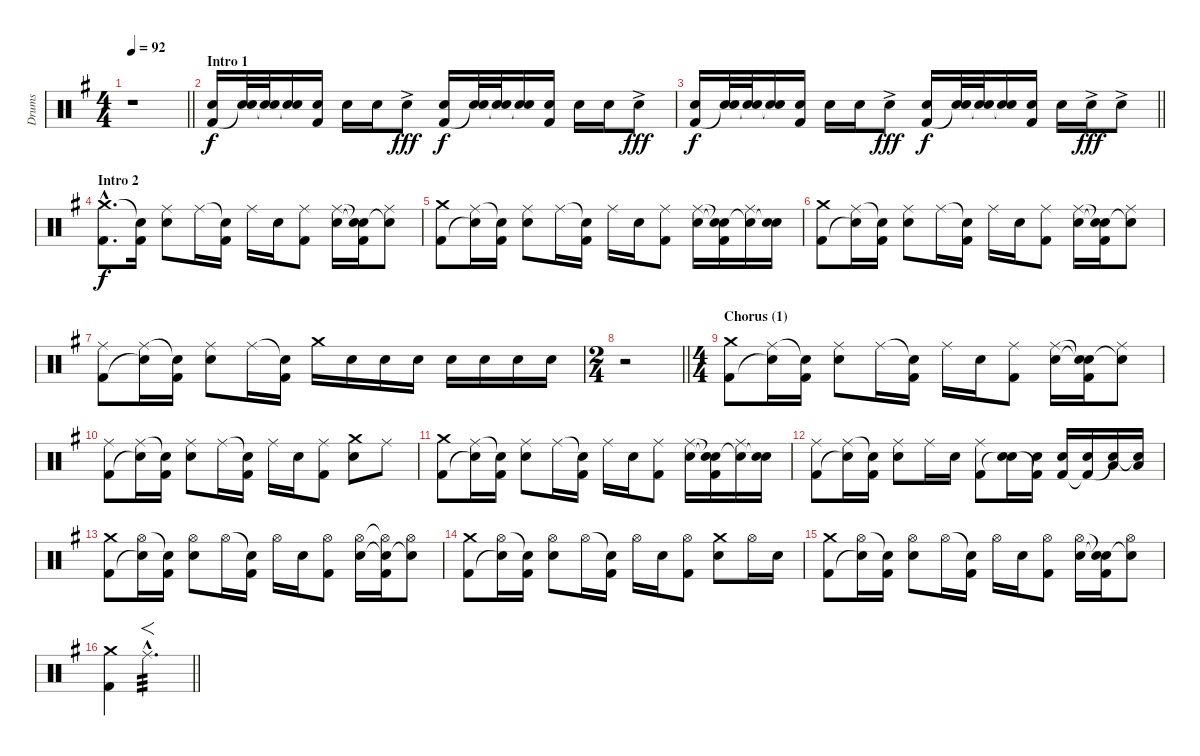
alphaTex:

\track ("Drums" "Drums") {instrument percussion}
\staff {score}
\articulation defaults
\ts (4 4)
\tempo 92
\clef neutral
\barLineRight lightlight
\ks g
r.1{dy f} |
\section ("" "Intro 1")
("Electric Snare (hit)" "Kick (hit) 2").16 ("Electric Snare (hit)" "Snare (hit)"{t}).32 ("Electric Snare (hit)" "Snare (hit)"{t}).32 ("Electric Snare (hit)" "Snare (hit)"{t}).16 ("Electric Snare (hit)" "Kick (hit) 2").16 "Electric Snare (hit)".16 "Electric Snare (hit)".16 "Electric Snare (hit)"{ac}.8{dy fff} ("Electric Snare (hit)" "Kick (hit) 2").16{dy f} ("Electric Snare (hit)" "Snare (hit)"{t}).32 ("Electric Snare (hit)" "Snare (hit)"{t}).32 ("Electric Snare (hit)" "Snare (hit)"{t}).16 ("Electric Snare (hit)" "Kick (hit) 2").16 "Electric Snare (hit)".16 "Electric Snare (hit)".16 "Electric Snare (hit)"{ac}.8{dy fff} |
\barLineRight lightlight
("Electric Snare (hit)" "Kick (hit) 2").16{dy f} ("Electric Snare (hit)" "Snare (hit)"{t}).32 ("Electric Snare (hit)" "Snare (hit)"{t}).32 ("Electric Snare (hit)" "Snare (hit)"{t}).16 ("Electric Snare (hit)" "Kick (hit) 2").16 "Electric Snare (hit)".16 "Electric Snare (hit)".16 "Electric Snare (hit)"{ac}.8{dy fff} ("Electric Snare (hit)" "Kick (hit) 2").16{dy f} ("Electric Snare (hit)" "Snare (hit)"{t}).32 ("Electric Snare (hit)" "Snare (hit)"{t}).32 ("Electric Snare (hit)" "Snare (hit)"{t}).16 ("Electric Snare (hit)" "Kick (hit) 2").16 "Electric Snare (hit)".16 "Electric Snare (hit)"{ac}.16{dy fff} "Electric Snare (hit)"{ac}.8 |
\section ("" "Intro 2")
("Crash medium (hit)"{hac} "Kick (hit) 2"{hac}).8{d dy f} ("Snare (hit)"{t} "Kick (hit) 2").16 ("Ride (middle)" "Electric Snare (hit)").8 "Ride (middle)".16 ("Snare (hit)"{t} "Kick (hit) 2").16 "Ride (middle)".16 "Electric Snare (hit)".16 ("Ride (middle)" "Kick (hit) 2").8 ("Ride (middle)" "Electric Snare (hit)").16 ("Snare (hit)"{t} "Snare (hit)"{t} "Kick (hit) 2").16 ("Ride (middle)" "Snare (hit)"{t}).8 |
("Crash medium (hit)" "Kick (hit) 2").8 ("Ride (middle)" "Snare (hit)"{t}).16 ("Snare (hit)"{t} "Kick (hit) 2").16 ("Ride (middle)" "Electric Snare (hit)").8 "Ride (middle)".16 ("Snare (hit)"{t} "Kick (hit) 2").16 "Ride (middle)".16 "Electric Snare (hit)".16 ("Ride (middle)" "Kick (hit) 2").8 ("Ride (middle)" "Electric Snare (hit)").16 ("Snare (hit)"{t} "Snare (hit)"{t} "Kick (hit) 2").16 ("Ride (middle)" "Snare (hit)"{t}).16 ("Electric Snare (hit)" "Snare (hit)"{t}).16 |
("Crash medium (hit)" "Kick (hit) 2").8 ("Ride (middle)" "Snare (hit)"{t}).16 ("Snare (hit)"{t} "Kick (hit) 2").16 ("Ride (middle)" "Electric Snare (hit)").8 "Ride (middle)".16 ("Snare (hit)"{t} "Kick (hit) 2").16 "Ride (middle)".16 "Electric Snare (hit)".16 ("Ride (middle)" "Kick (hit) 2").8 ("Ride (middle)" "Electric Snare (hit)").16 ("Snare (hit)"{t} "Snare (hit)"{t} "Kick (hit) 2").16 ("Ride (middle)" "Snare (hit)"{t}).8 |
("Ride (middle)" "Kick (hit) 2").8 ("Ride (middle)" "Snare (hit)"{t}).16 ("Snare (hit)"{t} "Kick (hit) 2").16 ("Ride (middle)" "Electric Snare (hit)").8 "Ride (middle)".16 ("Snare (hit)"{t} "Kick (hit) 2").16 "Crash medium (hit)".16 "Electric Snare (hit)".16 "Electric Snare (hit)".16 "Electric Snare (hit)".16 "Electric Snare (hit)".16 "Electric Snare (hit)".16 "Electric Snare (hit)".16 "Electric Snare (hit)".16 |
\ts (2 4)
\barLineRight lightlight
r.2 |
\ts (4 4)
\section ("" "Chorus (1)")
("Crash medium (hit)" "Kick (hit) 2").8 ("Ride (middle)" "Snare (hit)"{t}).16 ("Snare (hit)"{t} "Kick (hit) 2").16 ("Ride (middle)" "Electric Snare (hit)").8 "Ride (middle)".16 ("Snare (hit)"{t} "Kick (hit) 2").16 "Ride (middle)".16 "Electric Snare (hit)".16 ("Ride (middle)" "Kick (hit) 2").8 ("Ride (middle)" "Electric Snare (hit)").16 ("Snare (hit)"{t} "Snare (hit)"{t} "Kick (hit) 2").16 ("Ride (middle)" "Snare (hit)"{t}).8 |
("Ride (middle)" "Kick (hit) 2").8 ("Ride (middle)" "Snare (hit)"{t}).16 ("Snare (hit)"{t} "Kick (hit) 2").16 ("Ride (middle)" "Electric Snare (hit)").8 "Ride (middle)".16 ("Snare (hit)"{t} "Kick (hit) 2").16 "Ride (middle)".16 "Electric Snare (hit)".16 ("Ride (middle)" "Kick (hit) 2").8 ("Crash medium (hit)" "Electric Snare (hit)").8 "Ride (middle)".8 |
("Crash medium (hit)" "Kick (hit) 2").8 ("Ride (middle)" "Snare (hit)"{t}).16 ("Snare (hit)"{t} "Kick (hit) 2").16 ("Ride (middle)" "Electric Snare (hit)").8 "Ride (middle)".16 ("Snare (hit)"{t} "Kick (hit) 2").16 "Ride (middle)".16 "Electric Snare (hit)".16 ("Ride (middle)" "Kick (hit) 2").8 ("Ride (middle)" "Electric Snare (hit)").16 ("Snare (hit)"{t} "Snare (hit)"{t} "Kick (hit) 2").16 ("Ride (middle)" "Snare (hit)"{t}).16 ("Electric Snare (hit)" "Snare (hit)"{t}).16 |
("Ride (middle)" "Kick (hit) 2").8 ("Ride (middle)" "Snare (hit)"{t}).16 ("Snare (hit)"{t} "Kick (hit) 2").16 ("Ride (middle)" "Electric Snare (hit)").8 "Ride (middle)".16 "Electric Snare (hit)".16 ("Ride (middle)" "Kick (hit) 2").8 ("Electric Snare (hit)" "Snare (hit)"{t}).16 ("Electric Snare (hit)" "Kick (hit) 2"{t}).16 ("Electric Snare (hit)" "Kick (hit) 2").16 ("Electric Snare (hit)" "Kick (hit) 2"{t}).16 ("Low Tom (hit)" "Snare (hit)"{t}).16 ("Low Tom (hit)" "Snare (hit)"{t}).16 |
("Crash medium (hit)" "Kick (hit) 2").8 ("Hi-Hat (open)" "Snare (hit)"{t}).16 ("Snare (hit)"{t} "Kick (hit) 2").16 ("Hi-Hat (open)" "Electric Snare (hit)").8 "Hi-Hat (open)".16 ("Snare (hit)"{t} "Kick (hit) 2").16 "Hi-Hat (open)".16 "Electric Snare (hit)".16 ("Hi-Hat (open)" "Kick (hit) 2").8 ("Hi-Hat (open)" "Electric Snare (hit)").16 ("Hi-Hat (open)"{t} "Snare (hit)"{t} "Kick (hit) 2").16 ("Hi-Hat (open)" "Snare (hit)"{t}).8 |
("Crash medium (hit)" "Kick (hit) 2").8 ("Hi-Hat (open)" "Snare (hit)"{t}).16 ("Snare (hit)"{t} "Kick (hit) 2").16 ("Hi-Hat (open)" "Electric Snare (hit)").8 "Hi-Hat (open)".16 ("Snare (hit)"{t} "Kick (hit) 2").16 "Hi-Hat (open)".16 "Electric Snare (hit)".16 ("Hi-Hat (open)" "Kick (hit) 2").8 ("Crash medium (hit)" "Electric Snare (hit)").8 "Hi-Hat (open)".16 "Electric Snare (hit)".16 |
("Crash medium (hit)" "Kick (hit) 2").8 ("Hi-Hat (open)" "Snare (hit)"{t}).16 ("Snare (hit)"{t} "Kick (hit) 2").16 ("Hi-Hat (open)" "Electric Snare (hit)").8 "Hi-Hat (open)".16 ("Snare (hit)"{t} "Kick (hit) 2").16 "Hi-Hat (open)".16 "Electric Snare (hit)".16 ("Hi-Hat (open)" "Kick (hit) 2").8 ("Hi-Hat (open)" "Electric Snare (hit)").16 ("Snare (hit)"{t} "Snare (hit)"{t} "Kick (hit) 2").16 ("Hi-Hat (open)" "Snare (hit)"{t}).8 |
\barLineRight lightlight
("Crash medium (hit)" "Kick (hit) 2").4 "Ride (middle)"{hac}.2{f d tp 3}
